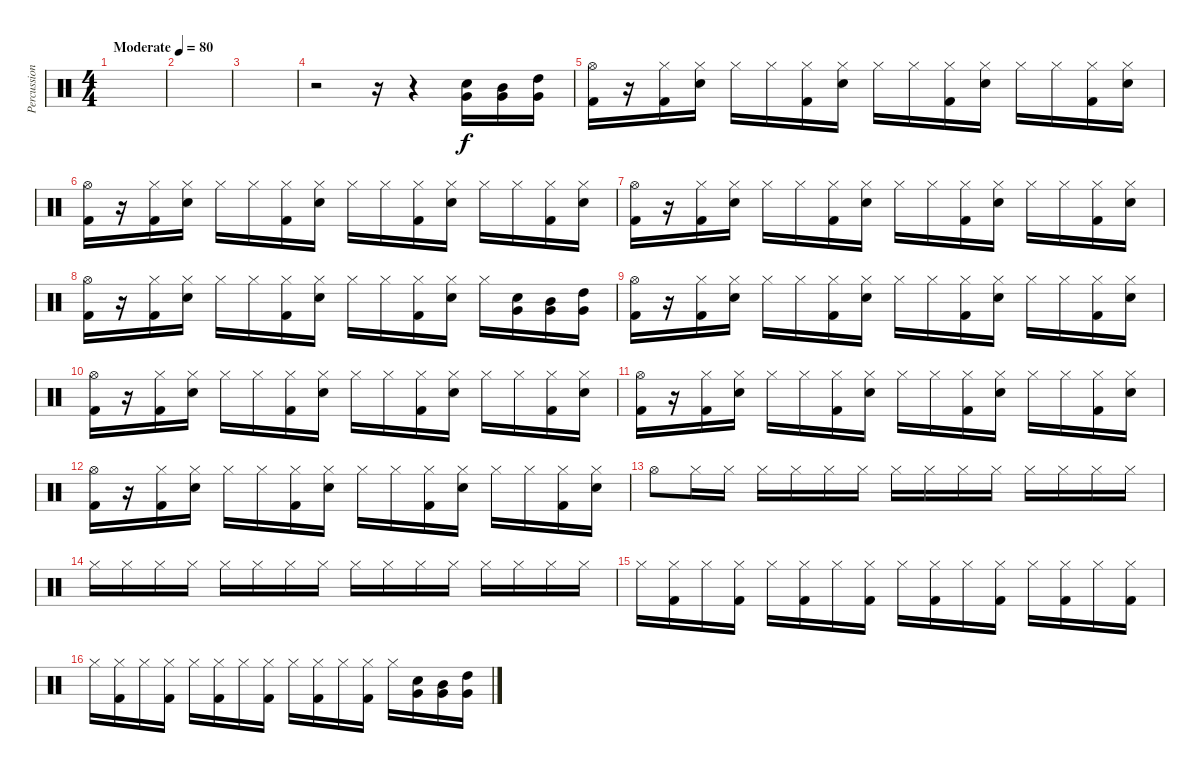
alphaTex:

\track ("Percussion" "Percussion") {instrument percussion}
\staff {score}
\articulation defaults
\ts (4 4)
\tempo (80 "Moderate")
\clef neutral
\ks c
|
|
|
r.2 r.16 r.4 ("Very Low Tom (hit)" "Snare (hit) 2").16 ("Mid Tom (hit)" "Very Low Tom (hit)").16 ("High Tom (hit)" "Very Low Tom (hit)").16 |
("Hi-Hat (open)" "Kick (hit) 2").16 r.16 ("Hi-Hat (closed)" "Kick (hit) 2").16 ("Hi-Hat (closed)" "Snare (hit) 2").16 "Hi-Hat (closed)".16 "Hi-Hat (closed)".16 ("Hi-Hat (closed)" "Kick (hit) 2").16 ("Hi-Hat (closed)" "Snare (hit) 2").16 "Hi-Hat (closed)".16 "Hi-Hat (closed)".16 ("Hi-Hat (closed)" "Kick (hit) 2").16 ("Hi-Hat (closed)" "Snare (hit) 2").16 "Hi-Hat (closed)".16 "Hi-Hat (closed)".16 ("Hi-Hat (closed)" "Kick (hit) 2").16 ("Hi-Hat (closed)" "Snare (hit) 2").16 |
("Hi-Hat (open)" "Kick (hit) 2").16 r.16 ("Hi-Hat (closed)" "Kick (hit) 2").16 ("Hi-Hat (closed)" "Snare (hit) 2").16 "Hi-Hat (closed)".16 "Hi-Hat (closed)".16 ("Hi-Hat (closed)" "Kick (hit) 2").16 ("Hi-Hat (closed)" "Snare (hit) 2").16 "Hi-Hat (closed)".16 "Hi-Hat (closed)".16 ("Hi-Hat (closed)" "Kick (hit) 2").16 ("Hi-Hat (closed)" "Snare (hit) 2").16 "Hi-Hat (closed)".16 "Hi-Hat (closed)".16 ("Hi-Hat (closed)" "Kick (hit) 2").16 ("Hi-Hat (closed)" "Snare (hit) 2").16 |
("Hi-Hat (open)" "Kick (hit) 2").16 r.16 ("Hi-Hat (closed)" "Kick (hit) 2").16 ("Hi-Hat (closed)" "Snare (hit) 2").16 "Hi-Hat (closed)".16 "Hi-Hat (closed)".16 ("Hi-Hat (closed)" "Kick (hit) 2").16 ("Hi-Hat (closed)" "Snare (hit) 2").16 "Hi-Hat (closed)".16 "Hi-Hat (closed)".16 ("Hi-Hat (closed)" "Kick (hit) 2").16 ("Hi-Hat (closed)" "Snare (hit) 2").16 "Hi-Hat (closed)".16 "Hi-Hat (closed)".16 ("Hi-Hat (closed)" "Kick (hit) 2").16 ("Hi-Hat (closed)" "Snare (hit) 2").16 |
("Hi-Hat (open)" "Kick (hit) 2").16 r.16 ("Hi-Hat (closed)" "Kick (hit) 2").16 ("Hi-Hat (closed)" "Snare (hit) 2").16 "Hi-Hat (closed)".16 "Hi-Hat (closed)".16 ("Hi-Hat (closed)" "Kick (hit) 2").16 ("Hi-Hat (closed)" "Snare (hit) 2").16 "Hi-Hat (closed)".16 "Hi-Hat (closed)".16 ("Hi-Hat (closed)" "Kick (hit) 2").16 ("Hi-Hat (closed)" "Snare (hit) 2").16 "Hi-Hat (closed)".16 ("Very Low Tom (hit)" "Snare (hit) 2").16 ("Mid Tom (hit)" "Very Low Tom (hit)").16 ("High Tom (hit)" "Very Low Tom (hit)").16 |
("Hi-Hat (open)" "Kick (hit) 2").16 r.16 ("Hi-Hat (closed)" "Kick (hit) 2").16 ("Hi-Hat (closed)" "Snare (hit) 2").16 "Hi-Hat (closed)".16 "Hi-Hat (closed)".16 ("Hi-Hat (closed)" "Kick (hit) 2").16 ("Hi-Hat (closed)" "Snare (hit) 2").16 "Hi-Hat (closed)".16 "Hi-Hat (closed)".16 ("Hi-Hat (closed)" "Kick (hit) 2").16 ("Hi-Hat (closed)" "Snare (hit) 2").16 "Hi-Hat (closed)".16 "Hi-Hat (closed)".16 ("Hi-Hat (closed)" "Kick (hit) 2").16 ("Hi-Hat (closed)" "Snare (hit) 2").16 |
("Hi-Hat (open)" "Kick (hit) 2").16 r.16 ("Hi-Hat (closed)" "Kick (hit) 2").16 ("Hi-Hat (closed)" "Snare (hit) 2").16 "Hi-Hat (closed)".16 "Hi-Hat (closed)".16 ("Hi-Hat (closed)" "Kick (hit) 2").16 ("Hi-Hat (closed)" "Snare (hit) 2").16 "Hi-Hat (closed)".16 "Hi-Hat (closed)".16 ("Hi-Hat (closed)" "Kick (hit) 2").16 ("Hi-Hat (closed)" "Snare (hit) 2").16 "Hi-Hat (closed)".16 "Hi-Hat (closed)".16 ("Hi-Hat (closed)" "Kick (hit) 2").16 ("Hi-Hat (closed)" "Snare (hit) 2").16 |
("Hi-Hat (open)" "Kick (hit) 2").16 r.16 ("Hi-Hat (closed)" "Kick (hit) 2").16 ("Hi-Hat (closed)" "Snare (hit) 2").16 "Hi-Hat (closed)".16 "Hi-Hat (closed)".16 ("Hi-Hat (closed)" "Kick (hit) 2").16 ("Hi-Hat (closed)" "Snare (hit) 2").16 "Hi-Hat (closed)".16 "Hi-Hat (closed)".16 ("Hi-Hat (closed)" "Kick (hit) 2").16 ("Hi-Hat (closed)" "Snare (hit) 2").16 "Hi-Hat (closed)".16 "Hi-Hat (closed)".16 ("Hi-Hat (closed)" "Kick (hit) 2").16 ("Hi-Hat (closed)" "Snare (hit) 2").16 |
("Hi-Hat (open)" "Kick (hit) 2").16 r.16 ("Hi-Hat (closed)" "Kick (hit) 2").16 ("Hi-Hat (closed)" "Snare (hit) 2").16 "Hi-Hat (closed)".16 "Hi-Hat (closed)".16 ("Hi-Hat (closed)" "Kick (hit) 2").16 ("Hi-Hat (closed)" "Snare (hit) 2").16 "Hi-Hat (closed)".16 "Hi-Hat (closed)".16 ("Hi-Hat (closed)" "Kick (hit) 2").16 ("Hi-Hat (closed)" "Snare (hit) 2").16 "Hi-Hat (closed)".16 "Hi-Hat (closed)".16 ("Hi-Hat (closed)" "Kick (hit) 2").16 ("Hi-Hat (closed)" "Snare (hit) 2").16 |
"Hi-Hat (open)".8 "Hi-Hat (closed)".16 "Hi-Hat (closed)".16 "Hi-Hat (closed)".16 "Hi-Hat (closed)".16 "Hi-Hat (closed)".16 "Hi-Hat (closed)".16 "Hi-Hat (closed)".16 "Hi-Hat (closed)".16 "Hi-Hat (closed)".16 "Hi-Hat (closed)".16 "Hi-Hat (closed)".16 "Hi-Hat (closed)".16 "Hi-Hat (closed)".16 "Hi-Hat (closed)".16 |
"Hi-Hat (closed)".16 "Hi-Hat (closed)".16 "Hi-Hat (closed)".16 "Hi-Hat (closed)".16 "Hi-Hat (closed)".16 "Hi-Hat (closed)".16 "Hi-Hat (closed)".16 "Hi-Hat (closed)".16 "Hi-Hat (closed)".16 "Hi-Hat (closed)".16 "Hi-Hat (closed)".16 "Hi-Hat (closed)".16 "Hi-Hat (closed)".16 "Hi-Hat (closed)".16 "Hi-Hat (closed)".16 "Hi-Hat (closed)".16 |
"Hi-Hat (closed)".16 ("Hi-Hat (closed)" "Kick (hit) 2").16 "Hi-Hat (closed)".16 ("Hi-Hat (closed)" "Kick (hit) 2").16 "Hi-Hat (closed)".16 ("Hi-Hat (closed)" "Kick (hit) 2").16 "Hi-Hat (closed)".16 ("Hi-Hat (closed)" "Kick (hit) 2").16 "Hi-Hat (closed)".16 ("Hi-Hat (closed)" "Kick (hit) 2").16 "Hi-Hat (closed)".16 ("Hi-Hat (closed)" "Kick (hit) 2").16 "Hi-Hat (closed)".16 ("Hi-Hat (closed)" "Kick (hit) 2").16 "Hi-Hat (closed)".16 ("Hi-Hat (closed)" "Kick (hit) 2").16 |
"Hi-Hat (closed)".16 ("Hi-Hat (closed)" "Kick (hit) 2").16 "Hi-Hat (closed)".16 ("Hi-Hat (closed)" "Kick (hit) 2").16 "Hi-Hat (closed)".16 ("Hi-Hat (closed)" "Kick (hit) 2").16 "Hi-Hat (closed)".16 ("Hi-Hat (closed)" "Kick (hit) 2").16 "Hi-Hat (closed)".16 ("Hi-Hat (closed)" "Kick (hit) 2").16 "Hi-Hat (closed)".16 ("Hi-Hat (closed)" "Kick (hit) 2").16 "Hi-Hat (closed)".16 ("Very Low Tom (hit)" "Snare (hit) 2").16 ("Mid Tom (hit)" "Very Low Tom (hit)").16 ("High Tom (hit)" "Very Low Tom (hit)").16
